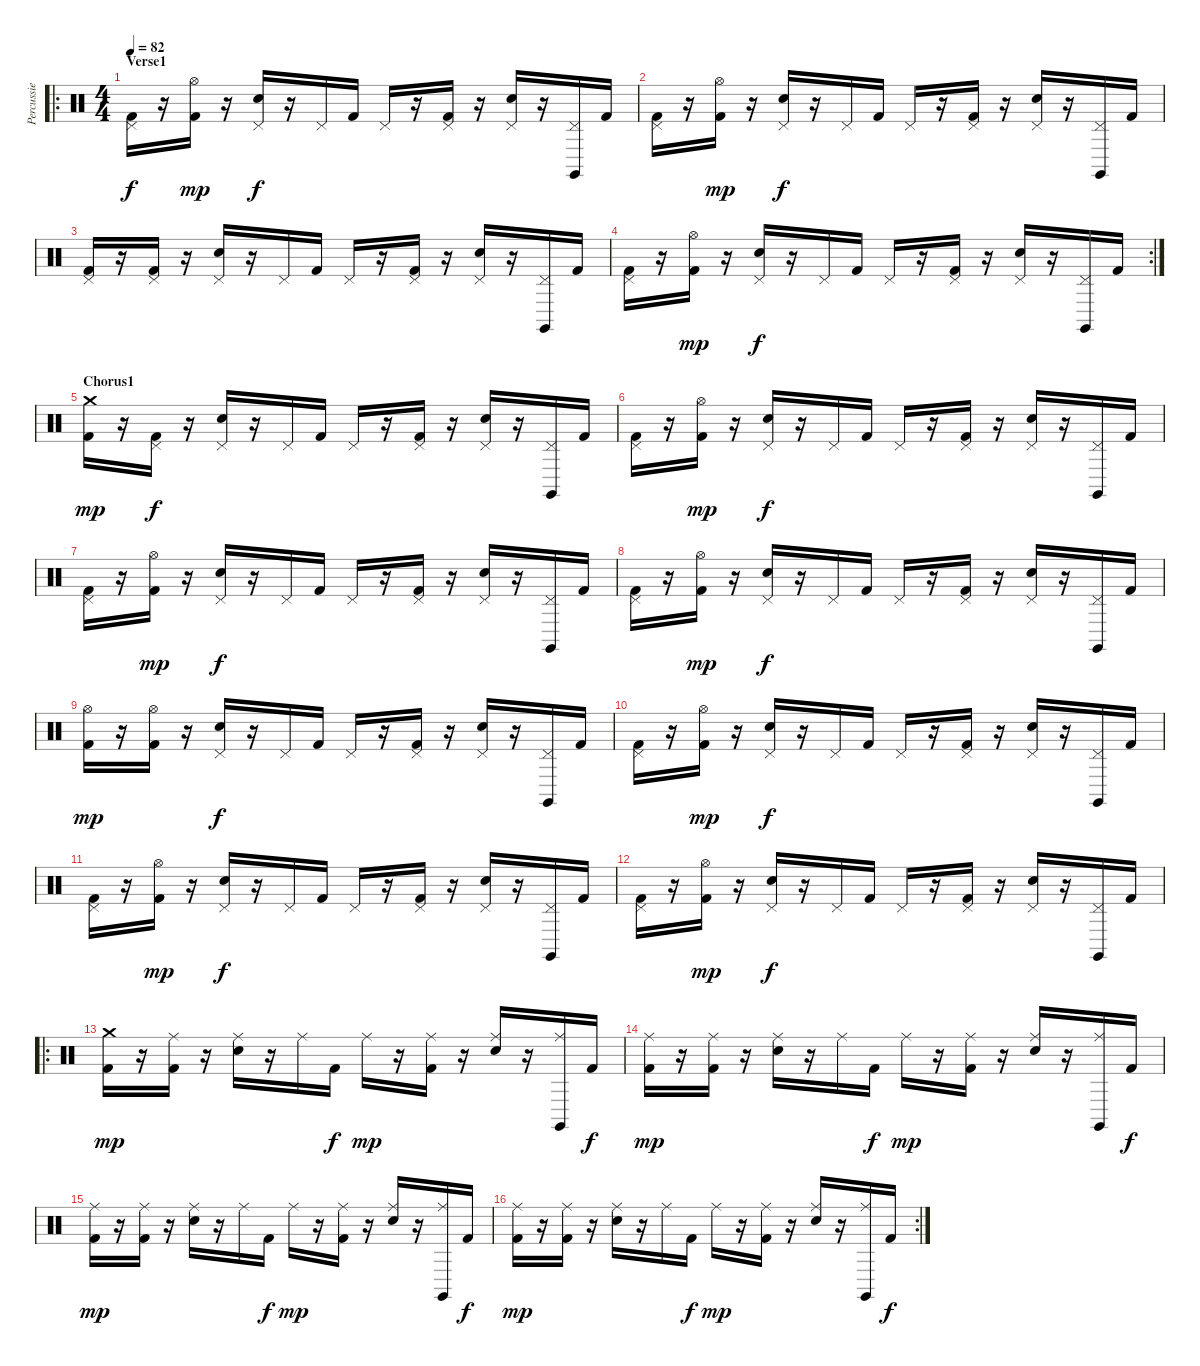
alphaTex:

\track ("Percussie" "Percussie") {instrument percussion}
\staff {score}
\articulation defaults
\ro
\ts (4 4)
\section ("" "Verse1")
\tempo 82
\clef neutral
\ks c
("Pedal Hi-Hat (hit)" "Kick (hit) 2").16{dy f} r.16 ("Hi-Hat (open)" "Kick (hit) 2").16{dy mp} r.16 ("Pedal Hi-Hat (hit)" "Electric Snare (hit)").16{dy f} r.16 "Pedal Hi-Hat (hit)".16 "Kick (hit) 2".16 "Pedal Hi-Hat (hit)".16 r.16 ("Pedal Hi-Hat (hit)" "Kick (hit) 2").16 r.16 ("Pedal Hi-Hat (hit)" "Electric Snare (hit)").16 r.16 ("Pedal Hi-Hat (hit)" "Claves (hit)").16 "Kick (hit) 2".16 |
("Pedal Hi-Hat (hit)" "Kick (hit) 2").16 r.16 ("Hi-Hat (open)" "Kick (hit) 2").16{dy mp} r.16 ("Pedal Hi-Hat (hit)" "Electric Snare (hit)").16{dy f} r.16 "Pedal Hi-Hat (hit)".16 "Kick (hit) 2".16 "Pedal Hi-Hat (hit)".16 r.16 ("Pedal Hi-Hat (hit)" "Kick (hit) 2").16 r.16 ("Pedal Hi-Hat (hit)" "Electric Snare (hit)").16 r.16 ("Pedal Hi-Hat (hit)" "Claves (hit)").16 "Kick (hit) 2".16 |
("Pedal Hi-Hat (hit)" "Kick (hit) 2").16 r.16 ("Pedal Hi-Hat (hit)" "Kick (hit) 2").16 r.16 ("Pedal Hi-Hat (hit)" "Electric Snare (hit)").16 r.16 "Pedal Hi-Hat (hit)".16 "Kick (hit) 2".16 "Pedal Hi-Hat (hit)".16 r.16 ("Pedal Hi-Hat (hit)" "Kick (hit) 2").16 r.16 ("Pedal Hi-Hat (hit)" "Electric Snare (hit)").16 r.16 ("Pedal Hi-Hat (hit)" "Claves (hit)").16 "Kick (hit) 2".16 |
\rc 2
("Pedal Hi-Hat (hit)" "Kick (hit) 2").16 r.16 ("Hi-Hat (open)" "Kick (hit) 2").16{dy mp} r.16 ("Pedal Hi-Hat (hit)" "Electric Snare (hit)").16{dy f} r.16 "Pedal Hi-Hat (hit)".16 "Kick (hit) 2".16 "Pedal Hi-Hat (hit)".16 r.16 ("Pedal Hi-Hat (hit)" "Kick (hit) 2").16 r.16 ("Pedal Hi-Hat (hit)" "Electric Snare (hit)").16 r.16 ("Pedal Hi-Hat (hit)" "Claves (hit)").16 "Kick (hit) 2".16 |
\section ("" "Chorus1")
("Crash medium (hit)" "Kick (hit) 2").16{dy mp} r.16 ("Pedal Hi-Hat (hit)" "Kick (hit) 2").16{dy f} r.16 ("Pedal Hi-Hat (hit)" "Electric Snare (hit)").16 r.16 "Pedal Hi-Hat (hit)".16 "Kick (hit) 2".16 "Pedal Hi-Hat (hit)".16 r.16 ("Pedal Hi-Hat (hit)" "Kick (hit) 2").16 r.16 ("Pedal Hi-Hat (hit)" "Electric Snare (hit)").16 r.16 ("Pedal Hi-Hat (hit)" "Claves (hit)").16 "Kick (hit) 2".16 |
("Pedal Hi-Hat (hit)" "Kick (hit) 2").16 r.16 ("Hi-Hat (open)" "Kick (hit) 2").16{dy mp} r.16 ("Pedal Hi-Hat (hit)" "Electric Snare (hit)").16{dy f} r.16 "Pedal Hi-Hat (hit)".16 "Kick (hit) 2".16 "Pedal Hi-Hat (hit)".16 r.16 ("Pedal Hi-Hat (hit)" "Kick (hit) 2").16 r.16 ("Pedal Hi-Hat (hit)" "Electric Snare (hit)").16 r.16 ("Pedal Hi-Hat (hit)" "Claves (hit)").16 "Kick (hit) 2".16 |
("Pedal Hi-Hat (hit)" "Kick (hit) 2").16 r.16 ("Hi-Hat (open)" "Kick (hit) 2").16{dy mp} r.16 ("Pedal Hi-Hat (hit)" "Electric Snare (hit)").16{dy f} r.16 "Pedal Hi-Hat (hit)".16 "Kick (hit) 2".16 "Pedal Hi-Hat (hit)".16 r.16 ("Pedal Hi-Hat (hit)" "Kick (hit) 2").16 r.16 ("Pedal Hi-Hat (hit)" "Electric Snare (hit)").16 r.16 ("Pedal Hi-Hat (hit)" "Claves (hit)").16 "Kick (hit) 2".16 |
("Pedal Hi-Hat (hit)" "Kick (hit) 2").16 r.16 ("Hi-Hat (open)" "Kick (hit) 2").16{dy mp} r.16 ("Pedal Hi-Hat (hit)" "Electric Snare (hit)").16{dy f} r.16 "Pedal Hi-Hat (hit)".16 "Kick (hit) 2".16 "Pedal Hi-Hat (hit)".16 r.16 ("Pedal Hi-Hat (hit)" "Kick (hit) 2").16 r.16 ("Pedal Hi-Hat (hit)" "Electric Snare (hit)").16 r.16 ("Pedal Hi-Hat (hit)" "Claves (hit)").16 "Kick (hit) 2".16 |
("Hi-Hat (open)" "Kick (hit) 2").16{dy mp} r.16 ("Hi-Hat (open)" "Kick (hit) 2").16 r.16 ("Pedal Hi-Hat (hit)" "Electric Snare (hit)").16{dy f} r.16 "Pedal Hi-Hat (hit)".16 "Kick (hit) 2".16 "Pedal Hi-Hat (hit)".16 r.16 ("Pedal Hi-Hat (hit)" "Kick (hit) 2").16 r.16 ("Pedal Hi-Hat (hit)" "Electric Snare (hit)").16 r.16 ("Pedal Hi-Hat (hit)" "Claves (hit)").16 "Kick (hit) 2".16 |
("Pedal Hi-Hat (hit)" "Kick (hit) 2").16 r.16 ("Hi-Hat (open)" "Kick (hit) 2").16{dy mp} r.16 ("Pedal Hi-Hat (hit)" "Electric Snare (hit)").16{dy f} r.16 "Pedal Hi-Hat (hit)".16 "Kick (hit) 2".16 "Pedal Hi-Hat (hit)".16 r.16 ("Pedal Hi-Hat (hit)" "Kick (hit) 2").16 r.16 ("Pedal Hi-Hat (hit)" "Electric Snare (hit)").16 r.16 ("Pedal Hi-Hat (hit)" "Claves (hit)").16 "Kick (hit) 2".16 |
("Pedal Hi-Hat (hit)" "Kick (hit) 2").16 r.16 ("Hi-Hat (open)" "Kick (hit) 2").16{dy mp} r.16 ("Pedal Hi-Hat (hit)" "Electric Snare (hit)").16{dy f} r.16 "Pedal Hi-Hat (hit)".16 "Kick (hit) 2".16 "Pedal Hi-Hat (hit)".16 r.16 ("Pedal Hi-Hat (hit)" "Kick (hit) 2").16 r.16 ("Pedal Hi-Hat (hit)" "Electric Snare (hit)").16 r.16 ("Pedal Hi-Hat (hit)" "Claves (hit)").16 "Kick (hit) 2".16 |
("Pedal Hi-Hat (hit)" "Kick (hit) 2").16 r.16 ("Hi-Hat (open)" "Kick (hit) 2").16{dy mp} r.16 ("Pedal Hi-Hat (hit)" "Electric Snare (hit)").16{dy f} r.16 "Pedal Hi-Hat (hit)".16 "Kick (hit) 2".16 "Pedal Hi-Hat (hit)".16 r.16 ("Pedal Hi-Hat (hit)" "Kick (hit) 2").16 r.16 ("Pedal Hi-Hat (hit)" "Electric Snare (hit)").16 r.16 ("Pedal Hi-Hat (hit)" "Claves (hit)").16 "Kick (hit) 2".16 |
\ro
("Crash medium (hit)" "Kick (hit) 2").16{dy mp} r.16 ("Ride (middle)" "Kick (hit) 2").16 r.16 ("Ride (middle)" "Electric Snare (hit)").16 r.16 "Ride (middle)".16 "Kick (hit) 2".16{dy f} "Ride (middle)".16{dy mp} r.16 ("Ride (middle)" "Kick (hit) 2").16 r.16 ("Ride (middle)" "Electric Snare (hit)").16 r.16 ("Ride (middle)" "Claves (hit)").16 "Kick (hit) 2".16{dy f} |
("Ride (middle)" "Kick (hit) 2").16{dy mp} r.16 ("Ride (middle)" "Kick (hit) 2").16 r.16 ("Ride (middle)" "Electric Snare (hit)").16 r.16 "Ride (middle)".16 "Kick (hit) 2".16{dy f} "Ride (middle)".16{dy mp} r.16 ("Ride (middle)" "Kick (hit) 2").16 r.16 ("Ride (middle)" "Electric Snare (hit)").16 r.16 ("Ride (middle)" "Claves (hit)").16 "Kick (hit) 2".16{dy f} |
("Ride (middle)" "Kick (hit) 2").16{dy mp} r.16 ("Ride (middle)" "Kick (hit) 2").16 r.16 ("Ride (middle)" "Electric Snare (hit)").16 r.16 "Ride (middle)".16 "Kick (hit) 2".16{dy f} "Ride (middle)".16{dy mp} r.16 ("Ride (middle)" "Kick (hit) 2").16 r.16 ("Ride (middle)" "Electric Snare (hit)").16 r.16 ("Ride (middle)" "Claves (hit)").16 "Kick (hit) 2".16{dy f} |
\rc 2
("Ride (middle)" "Kick (hit) 2").16{dy mp} r.16 ("Ride (middle)" "Kick (hit) 2").16 r.16 ("Ride (middle)" "Electric Snare (hit)").16 r.16 "Ride (middle)".16 "Kick (hit) 2".16{dy f} "Ride (middle)".16{dy mp} r.16 ("Ride (middle)" "Kick (hit) 2").16 r.16 ("Ride (middle)" "Electric Snare (hit)").16 r.16 ("Ride (middle)" "Claves (hit)").16 "Kick (hit) 2".16{dy f}
